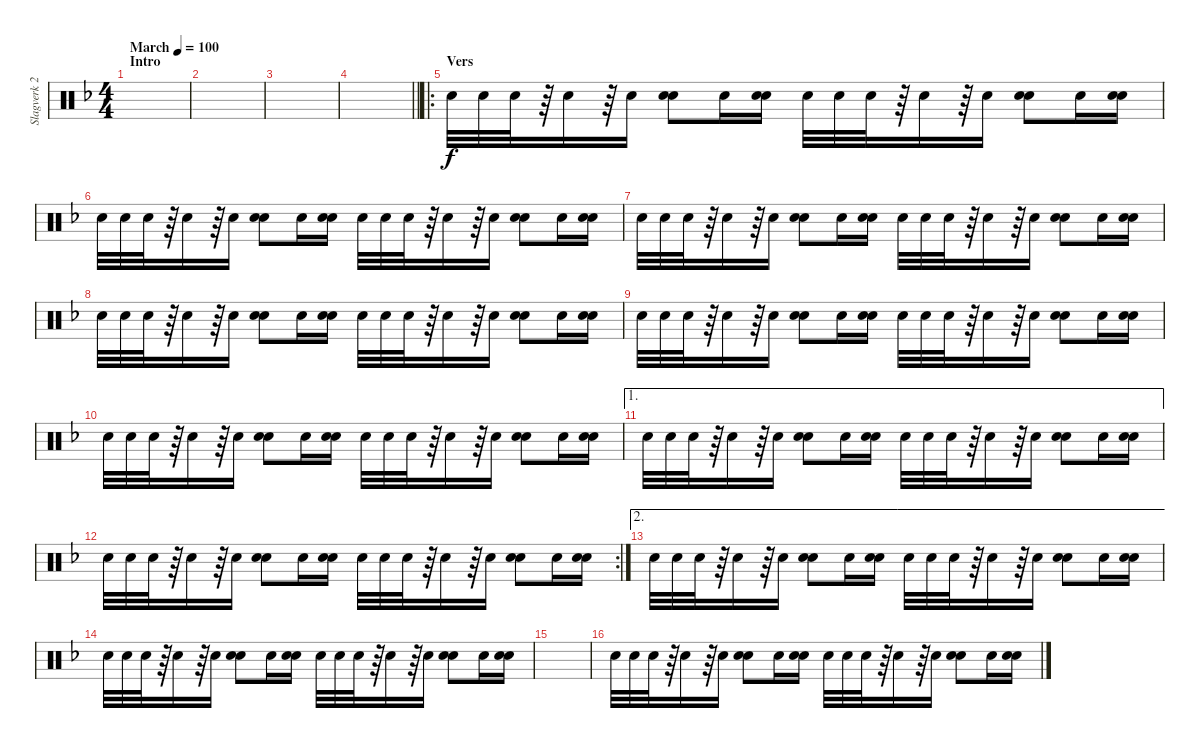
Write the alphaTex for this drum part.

\track ("Slagverk 2" "Slagverk 2") {instrument percussion}
\staff {score}
\articulation defaults
\ts (4 4)
\section ("" "Intro")
\tempo (100 "March")
\clef neutral
\ks f
|
|
|
\barLineRight lightlight
|
\ro
\section ("" "Vers")
"Snare (hit) 2".32 "Snare (hit) 2".32 "Snare (hit) 2".32 r.64 "Snare (hit) 2".16 r.64 "Snare (hit) 2".16 ("Snare (hit) 2" "Snare (hit) 2").8 "Snare (hit) 2".16 ("Snare (hit) 2" "Snare (hit) 2").16 "Snare (hit) 2".32 "Snare (hit) 2".32 "Snare (hit) 2".32 r.64 "Snare (hit) 2".16 r.64 "Snare (hit) 2".16 ("Snare (hit) 2" "Snare (hit) 2").8 "Snare (hit) 2".16 ("Snare (hit) 2" "Snare (hit) 2").16 |
"Snare (hit) 2".32 "Snare (hit) 2".32 "Snare (hit) 2".32 r.64 "Snare (hit) 2".16 r.64 "Snare (hit) 2".16 ("Snare (hit) 2" "Snare (hit) 2").8 "Snare (hit) 2".16 ("Snare (hit) 2" "Snare (hit) 2").16 "Snare (hit) 2".32 "Snare (hit) 2".32 "Snare (hit) 2".32 r.64 "Snare (hit) 2".16 r.64 "Snare (hit) 2".16 ("Snare (hit) 2" "Snare (hit) 2").8 "Snare (hit) 2".16 ("Snare (hit) 2" "Snare (hit) 2").16 |
"Snare (hit) 2".32 "Snare (hit) 2".32 "Snare (hit) 2".32 r.64 "Snare (hit) 2".16 r.64 "Snare (hit) 2".16 ("Snare (hit) 2" "Snare (hit) 2").8 "Snare (hit) 2".16 ("Snare (hit) 2" "Snare (hit) 2").16 "Snare (hit) 2".32 "Snare (hit) 2".32 "Snare (hit) 2".32 r.64 "Snare (hit) 2".16 r.64 "Snare (hit) 2".16 ("Snare (hit) 2" "Snare (hit) 2").8 "Snare (hit) 2".16 ("Snare (hit) 2" "Snare (hit) 2").16 |
"Snare (hit) 2".32 "Snare (hit) 2".32 "Snare (hit) 2".32 r.64 "Snare (hit) 2".16 r.64 "Snare (hit) 2".16 ("Snare (hit) 2" "Snare (hit) 2").8 "Snare (hit) 2".16 ("Snare (hit) 2" "Snare (hit) 2").16 "Snare (hit) 2".32 "Snare (hit) 2".32 "Snare (hit) 2".32 r.64 "Snare (hit) 2".16 r.64 "Snare (hit) 2".16 ("Snare (hit) 2" "Snare (hit) 2").8 "Snare (hit) 2".16 ("Snare (hit) 2" "Snare (hit) 2").16 |
"Snare (hit) 2".32 "Snare (hit) 2".32 "Snare (hit) 2".32 r.64 "Snare (hit) 2".16 r.64 "Snare (hit) 2".16 ("Snare (hit) 2" "Snare (hit) 2").8 "Snare (hit) 2".16 ("Snare (hit) 2" "Snare (hit) 2").16 "Snare (hit) 2".32 "Snare (hit) 2".32 "Snare (hit) 2".32 r.64 "Snare (hit) 2".16 r.64 "Snare (hit) 2".16 ("Snare (hit) 2" "Snare (hit) 2").8 "Snare (hit) 2".16 ("Snare (hit) 2" "Snare (hit) 2").16 |
"Snare (hit) 2".32 "Snare (hit) 2".32 "Snare (hit) 2".32 r.64 "Snare (hit) 2".16 r.64 "Snare (hit) 2".16 ("Snare (hit) 2" "Snare (hit) 2").8 "Snare (hit) 2".16 ("Snare (hit) 2" "Snare (hit) 2").16 "Snare (hit) 2".32 "Snare (hit) 2".32 "Snare (hit) 2".32 r.64 "Snare (hit) 2".16 r.64 "Snare (hit) 2".16 ("Snare (hit) 2" "Snare (hit) 2").8 "Snare (hit) 2".16 ("Snare (hit) 2" "Snare (hit) 2").16 |
\ae 1 "Snare (hit) 2".32 "Snare (hit) 2".32 "Snare (hit) 2".32
r.64 "Snare (hit) 2".16 r.64 "Snare (hit) 2".16 ("Snare (hit) 2" "Snare (hit) 2").8 "Snare (hit) 2".16 ("Snare (hit) 2" "Snare (hit) 2").16 "Snare (hit) 2".32 "Snare (hit) 2".32 "Snare (hit) 2".32 r.64 "Snare (hit) 2".16 r.64 "Snare (hit) 2".16 ("Snare (hit) 2" "Snare (hit) 2").8 "Snare (hit) 2".16 ("Snare (hit) 2" "Snare (hit) 2").16 |
\rc 2 "Snare (hit) 2".32 "Snare (hit) 2".32 "Snare (hit) 2".32
r.64 "Snare (hit) 2".16 r.64 "Snare (hit) 2".16 ("Snare (hit) 2" "Snare (hit) 2").8 "Snare (hit) 2".16 ("Snare (hit) 2" "Snare (hit) 2").16 "Snare (hit) 2".32 "Snare (hit) 2".32 "Snare (hit) 2".32 r.64 "Snare (hit) 2".16 r.64 "Snare (hit) 2".16 ("Snare (hit) 2" "Snare (hit) 2").8 "Snare (hit) 2".16 ("Snare (hit) 2" "Snare (hit) 2").16 |
\ae 2 "Snare (hit) 2".32 "Snare (hit) 2".32 "Snare (hit) 2".32
r.64 "Snare (hit) 2".16 r.64 "Snare (hit) 2".16 ("Snare (hit) 2" "Snare (hit) 2").8 "Snare (hit) 2".16 ("Snare (hit) 2" "Snare (hit) 2").16 "Snare (hit) 2".32 "Snare (hit) 2".32 "Snare (hit) 2".32 r.64 "Snare (hit) 2".16 r.64 "Snare (hit) 2".16 ("Snare (hit) 2" "Snare (hit) 2").8 "Snare (hit) 2".16 ("Snare (hit) 2" "Snare (hit) 2").16 |
"Snare (hit) 2".32 "Snare (hit) 2".32 "Snare (hit) 2".32 r.64 "Snare (hit) 2".16 r.64 "Snare (hit) 2".16 ("Snare (hit) 2" "Snare (hit) 2").8 "Snare (hit) 2".16 ("Snare (hit) 2" "Snare (hit) 2").16 "Snare (hit) 2".32 "Snare (hit) 2".32 "Snare (hit) 2".32 r.64 "Snare (hit) 2".16 r.64 "Snare (hit) 2".16 ("Snare (hit) 2" "Snare (hit) 2").8 "Snare (hit) 2".16 ("Snare (hit) 2" "Snare (hit) 2").16 |
|
"Snare (hit) 2".32 "Snare (hit) 2".32 "Snare (hit) 2".32 r.64 "Snare (hit) 2".16 r.64 "Snare (hit) 2".16 ("Snare (hit) 2" "Snare (hit) 2").8 "Snare (hit) 2".16 ("Snare (hit) 2" "Snare (hit) 2").16 "Snare (hit) 2".32 "Snare (hit) 2".32 "Snare (hit) 2".32 r.64 "Snare (hit) 2".16 r.64 "Snare (hit) 2".16 ("Snare (hit) 2" "Snare (hit) 2").8 "Snare (hit) 2".16 ("Snare (hit) 2" "Snare (hit) 2").16
